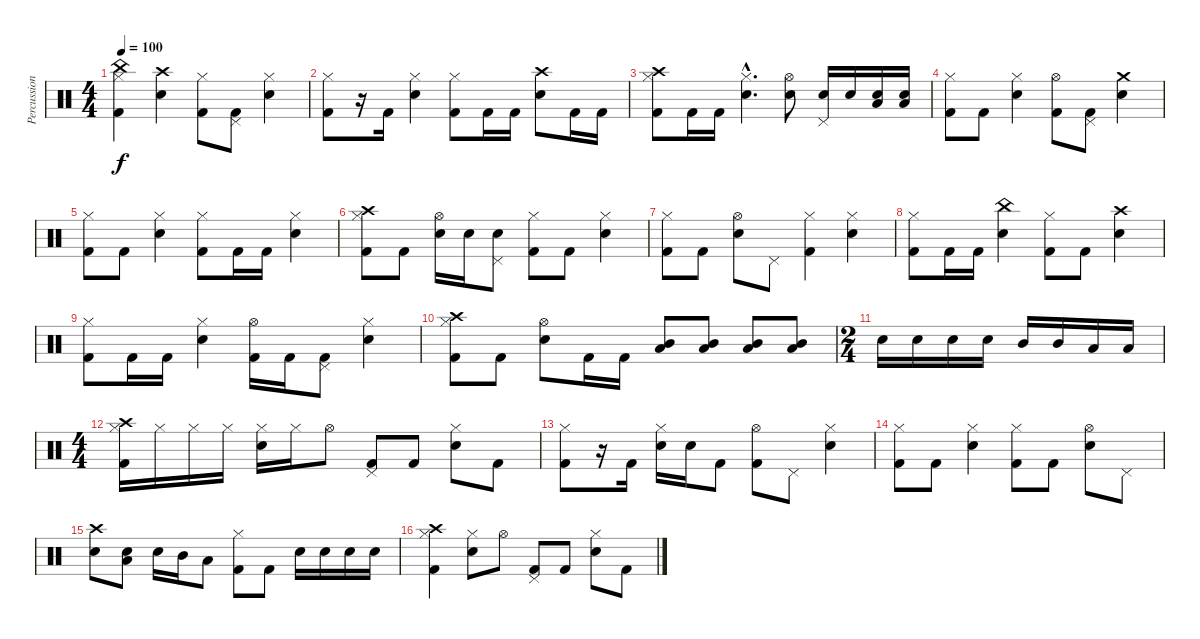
\track ("Percussioni" "Percussion") {instrument percussion}
\staff {score}
\articulation defaults
\ts (4 4)
\tempo 100
\clef neutral
\ks c
("Hi-Hat (closed)" "China (hit)" "Kick (hit) 2").4{dy f} ("Crash high (hit)" "Electric Snare (hit)").4 ("Hi-Hat (closed)" "Kick (hit) 2").8 ("Pedal Hi-Hat (hit)" "Kick (hit) 2").8 ("Hi-Hat (closed)" "Electric Snare (hit)").4 |
("Hi-Hat (closed)" "Kick (hit) 2").8 r.16 "Kick (hit) 2".16 ("Hi-Hat (closed)" "Electric Snare (hit)").4 ("Hi-Hat (closed)" "Kick (hit) 2").8 "Kick (hit) 2".16 "Kick (hit) 2".16 ("Crash high (hit)" "Electric Snare (hit)").8 "Kick (hit) 2".16 "Kick (hit) 2".16 |
("Crash high (hit)" "Hi-Hat (closed)" "Kick (hit) 2").8 "Kick (hit) 2".16 "Kick (hit) 2".16 ("Hi-Hat (closed)"{hac} "Electric Snare (hit)"{hac}).4{d} ("Hi-Hat (open)" "Electric Snare (hit)").8 ("Pedal Hi-Hat (hit)" "Electric Snare (hit)").16 "Electric Snare (hit)".16 ("Electric Snare (hit)" "Low Tom (hit)").16 ("Electric Snare (hit)" "Low Tom (hit)").16 |
("Hi-Hat (closed)" "Kick (hit) 2").8 "Kick (hit) 2".8 ("Hi-Hat (closed)" "Electric Snare (hit)").4 ("Hi-Hat (open)" "Kick (hit) 2").8 ("Pedal Hi-Hat (hit)" "Kick (hit) 2").8 ("Crash medium (hit)" "Electric Snare (hit)").4 |
("Hi-Hat (closed)" "Kick (hit) 2").8 "Kick (hit) 2".8 ("Hi-Hat (closed)" "Electric Snare (hit)").4 ("Hi-Hat (closed)" "Kick (hit) 2").8 "Kick (hit) 2".16 "Kick (hit) 2".16 ("Hi-Hat (closed)" "Electric Snare (hit)").4 |
("Hi-Hat (closed)" "Crash high (hit)" "Kick (hit) 2").8 "Kick (hit) 2".8 ("Hi-Hat (open)" "Electric Snare (hit)").16 "Electric Snare (hit)".16 ("Pedal Hi-Hat (hit)" "Electric Snare (hit)").8 ("Hi-Hat (closed)" "Kick (hit) 2").8 "Kick (hit) 2".8 ("Hi-Hat (closed)" "Electric Snare (hit)").4 |
("Hi-Hat (closed)" "Kick (hit) 2").8 "Kick (hit) 2".8 ("Hi-Hat (open)" "Electric Snare (hit)").8 "Pedal Hi-Hat (hit)".8 ("Hi-Hat (closed)" "Kick (hit) 2").4 ("Hi-Hat (closed)" "Electric Snare (hit)").4 |
("Hi-Hat (closed)" "Kick (hit) 2").8 "Kick (hit) 2".16 "Kick (hit) 2".16 ("China (hit)" "Electric Snare (hit)").4 ("Hi-Hat (closed)" "Kick (hit) 2").8 "Kick (hit) 2".8 ("Crash high (hit)" "Electric Snare (hit)").4 |
("Hi-Hat (closed)" "Kick (hit) 2").8 "Kick (hit) 2".16 "Kick (hit) 2".16 ("Hi-Hat (closed)" "Electric Snare (hit)").4 ("Hi-Hat (open)" "Kick (hit) 2").16 "Kick (hit) 2".16 ("Pedal Hi-Hat (hit)" "Kick (hit) 2").8 ("Hi-Hat (closed)" "Electric Snare (hit)").4 |
("Hi-Hat (closed)" "Crash high (hit)" "Kick (hit) 2").8 "Kick (hit) 2".8 ("Hi-Hat (open)" "Electric Snare (hit)").8 "Kick (hit) 2".16 "Kick (hit) 2".16 ("Low Tom (hit)" "Mid Tom (hit)").8 ("Low Tom (hit)" "Mid Tom (hit)").8 ("Low Tom (hit)" "Mid Tom (hit)").8 ("Low Tom (hit)" "Mid Tom (hit)").8 |
\ts (2 4)
"Electric Snare (hit)".16 "Electric Snare (hit)".16 "Electric Snare (hit)".16 "Electric Snare (hit)".16 "Mid Tom (hit)".16 "Mid Tom (hit)".16 "Low Tom (hit)".16 "Low Tom (hit)".16 |
\ts (4 4)
("Hi-Hat (closed)" "Crash high (hit)" "Kick (hit) 2").16 "Hi-Hat (closed)".16 "Hi-Hat (closed)".16 "Hi-Hat (closed)".16 ("Hi-Hat (closed)" "Electric Snare (hit)").16 "Hi-Hat (closed)".16 "Hi-Hat (open)".8 ("Pedal Hi-Hat (hit)" "Kick (hit) 2").8 "Kick (hit) 2".8 ("Hi-Hat (closed)" "Electric Snare (hit)").8 "Kick (hit) 2".8 |
("Hi-Hat (closed)" "Kick (hit) 2").8 r.16 "Kick (hit) 2".16 ("Hi-Hat (closed)" "Electric Snare (hit)").16 "Electric Snare (hit)".16 "Kick (hit) 2".8 ("Hi-Hat (open)" "Kick (hit) 2").8 "Pedal Hi-Hat (hit)".8 ("Hi-Hat (closed)" "Electric Snare (hit)").4 |
("Hi-Hat (closed)" "Kick (hit) 2").8 "Kick (hit) 2".8 ("Hi-Hat (closed)" "Electric Snare (hit)").4 ("Hi-Hat (closed)" "Kick (hit) 2").8 "Kick (hit) 2".8 ("Hi-Hat (open)" "Electric Snare (hit)").8 "Pedal Hi-Hat (hit)".8 |
("Crash high (hit)" "Electric Snare (hit)").8 ("Electric Snare (hit)" "Low Tom (hit)").8 "Electric Snare (hit)".16 "Mid Tom (hit)".16 "Low Tom (hit)".8 ("Hi-Hat (closed)" "Kick (hit) 2").8 "Kick (hit) 2".8 "Electric Snare (hit)".16 "Electric Snare (hit)".16 "Electric Snare (hit)".16 "Electric Snare (hit)".16 |
("Hi-Hat (closed)" "Crash high (hit)" "Kick (hit) 2").4 ("Hi-Hat (closed)" "Electric Snare (hit)").8 "Hi-Hat (open)".8 ("Pedal Hi-Hat (hit)" "Kick (hit) 2").8 "Kick (hit) 2".8 ("Hi-Hat (closed)" "Electric Snare (hit)").8 "Kick (hit) 2".8
